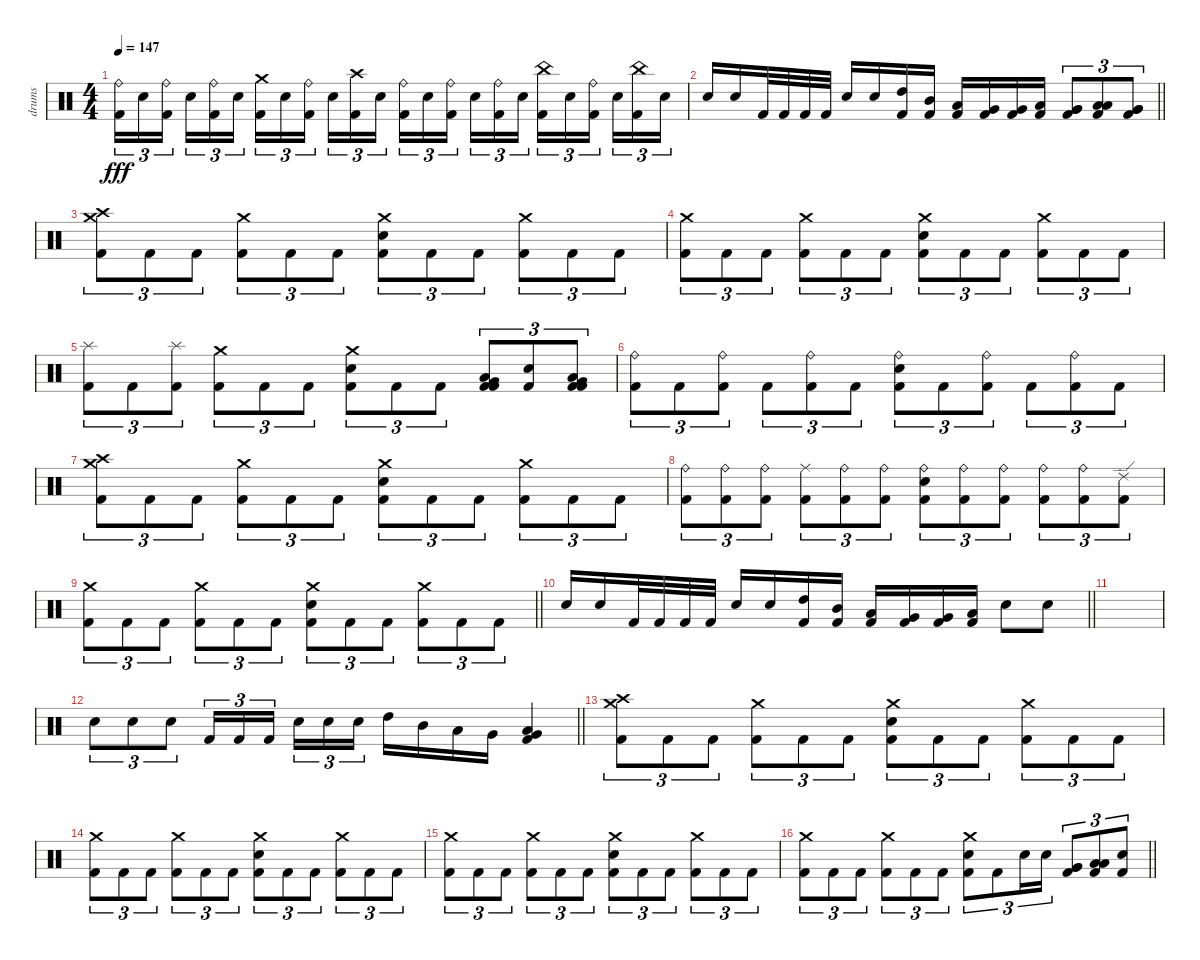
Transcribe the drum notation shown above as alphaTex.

\track ("drums" "drums") {instrument percussion}
\staff {score}
\articulation defaults
\ts (4 4)
\tempo 147
\clef neutral
\ks c
("Ride (bell)" "Kick (hit) 2").16{tu (3 2) dy fff} "Electric Snare (hit)".16{tu (3 2)} ("Ride (bell)" "Kick (hit) 2").16{tu (3 2) beam splitsecondary} "Electric Snare (hit)".16{tu (3 2)} ("Ride (bell)" "Kick (hit) 2").16{tu (3 2)} "Electric Snare (hit)".16{tu (3 2)} ("Crash medium (hit)" "Kick (hit) 2").16{tu (3 2)} "Electric Snare (hit)".16{tu (3 2)} ("Ride (bell)" "Kick (hit) 2").16{tu (3 2) beam splitsecondary} "Electric Snare (hit)".16{tu (3 2)} ("Crash high (hit)" "Kick (hit) 2").16{tu (3 2)} "Electric Snare (hit)".16{tu (3 2)} ("Ride (bell)" "Kick (hit) 2").16{tu (3 2)} "Electric Snare (hit)".16{tu (3 2)} ("Ride (bell)" "Kick (hit) 2").16{tu (3 2) beam splitsecondary} "Electric Snare (hit)".16{tu (3 2)} ("Ride (bell)" "Kick (hit) 2").16{tu (3 2)} "Electric Snare (hit)".16{tu (3 2)} ("China (hit)" "Kick (hit) 2").16{tu (3 2)} "Electric Snare (hit)".16{tu (3 2)} ("Ride (bell)" "Kick (hit) 2").16{tu (3 2) beam splitsecondary} "Electric Snare (hit)".16{tu (3 2)} ("China (hit)" "Kick (hit) 2").16{tu (3 2)} "Electric Snare (hit)".16{tu (3 2)} |
\barLineRight lightlight "Electric Snare (hit)".16 "Electric Snare (hit)".16 "Kick (hit) 2".32 "Kick (hit) 2".32 "Kick (hit) 2".32 "Kick (hit) 2".32 "Electric Snare (hit)".16 "Electric Snare (hit)".16
("High Tom (hit)" "Kick (hit) 2").16 ("Mid Tom (hit)" "Kick (hit) 2").16 ("Low Tom (hit)" "Kick (hit) 2").16 ("Very Low Tom (hit)" "Kick (hit) 2").16 ("Very Low Tom (hit)" "Kick (hit) 2").16 ("Low Floor Tom (hit)" "Kick (hit) 2").16 ("Very Low Tom (hit)" "Very Low Tom (hit)" "Kick (hit) 2").8{tu (3 2)} ("Low Floor Tom (hit)" "Low Floor Tom (hit)" "Kick (hit) 2").8{tu (3 2)} ("Very Low Tom (hit)" "Very Low Tom (hit)" "Kick (hit) 2").8{tu (3 2)} |
\section ("" "")
("Crash high (hit)" "Crash medium (hit)" "Kick (hit) 2").8{tu (3 2)} "Kick (hit) 2".8{tu (3 2)} "Kick (hit) 2".8{tu (3 2)} ("Crash medium (hit)" "Kick (hit) 2").8{tu (3 2)} "Kick (hit) 2".8{tu (3 2)} "Kick (hit) 2".8{tu (3 2)} ("Crash medium (hit)" "Electric Snare (hit)" "Kick (hit) 2").8{tu (3 2)} "Kick (hit) 2".8{tu (3 2)} "Kick (hit) 2".8{tu (3 2)} ("Crash medium (hit)" "Kick (hit) 2").8{tu (3 2)} "Kick (hit) 2".8{tu (3 2)} "Kick (hit) 2".8{tu (3 2)} |
("Crash medium (hit)" "Kick (hit) 2").8{tu (3 2)} "Kick (hit) 2".8{tu (3 2)} "Kick (hit) 2".8{tu (3 2)} ("Crash medium (hit)" "Kick (hit) 2").8{tu (3 2)} "Kick (hit) 2".8{tu (3 2)} "Kick (hit) 2".8{tu (3 2)} ("Crash medium (hit)" "Electric Snare (hit)" "Kick (hit) 2").8{tu (3 2)} "Kick (hit) 2".8{tu (3 2)} "Kick (hit) 2".8{tu (3 2)} ("Crash medium (hit)" "Kick (hit) 2").8{tu (3 2)} "Kick (hit) 2".8{tu (3 2)} "Kick (hit) 2".8{tu (3 2)} |
("Splash (hit)" "Kick (hit) 2").8{tu (3 2)} "Kick (hit) 2".8{tu (3 2)} ("Splash (hit)" "Kick (hit) 2").8{tu (3 2)} ("Crash medium (hit)" "Kick (hit) 2").8{tu (3 2)} "Kick (hit) 2".8{tu (3 2)} "Kick (hit) 2".8{tu (3 2)} ("Crash medium (hit)" "Electric Snare (hit)" "Kick (hit) 2").8{tu (3 2)} "Kick (hit) 2".8{tu (3 2)} "Kick (hit) 2".8{tu (3 2)} ("Very Low Tom (hit)" "Low Floor Tom (hit)" "Kick (hit) 2" "Kick (hit) 2").8{tu (3 2)} ("Electric Snare (hit)" "Kick (hit) 2").8{tu (3 2)} ("Very Low Tom (hit)" "Low Floor Tom (hit)" "Kick (hit) 2" "Kick (hit) 2").8{tu (3 2)} |
("Ride (bell)" "Kick (hit) 2").8{tu (3 2)} "Kick (hit) 2".8{tu (3 2)} ("Ride (bell)" "Kick (hit) 2").8{tu (3 2)} "Kick (hit) 2".8{tu (3 2)} ("Ride (bell)" "Kick (hit) 2").8{tu (3 2)} "Kick (hit) 2".8{tu (3 2)} ("Ride (bell)" "Electric Snare (hit)" "Kick (hit) 2").8{tu (3 2)} "Kick (hit) 2".8{tu (3 2)} ("Ride (bell)" "Kick (hit) 2").8{tu (3 2)} "Kick (hit) 2".8{tu (3 2)} ("Ride (bell)" "Kick (hit) 2").8{tu (3 2)} "Kick (hit) 2".8{tu (3 2)} |
("Crash high (hit)" "Crash medium (hit)" "Kick (hit) 2").8{tu (3 2)} "Kick (hit) 2".8{tu (3 2)} "Kick (hit) 2".8{tu (3 2)} ("Crash medium (hit)" "Kick (hit) 2").8{tu (3 2)} "Kick (hit) 2".8{tu (3 2)} "Kick (hit) 2".8{tu (3 2)} ("Crash medium (hit)" "Electric Snare (hit)" "Kick (hit) 2").8{tu (3 2)} "Kick (hit) 2".8{tu (3 2)} "Kick (hit) 2".8{tu (3 2)} ("Crash medium (hit)" "Kick (hit) 2").8{tu (3 2)} "Kick (hit) 2".8{tu (3 2)} "Kick (hit) 2".8{tu (3 2)} |
("Ride (bell)" "Kick (hit) 2").8{tu (3 2)} ("Ride (bell)" "Kick (hit) 2").8{tu (3 2)} ("Ride (bell)" "Kick (hit) 2").8{tu (3 2)} ("Ride (middle)" "Kick (hit) 2").8{tu (3 2)} ("Ride (bell)" "Kick (hit) 2").8{tu (3 2)} ("Ride (bell)" "Kick (hit) 2").8{tu (3 2)} ("Ride (bell)" "Electric Snare (hit)" "Kick (hit) 2").8{tu (3 2)} ("Ride (bell)" "Kick (hit) 2").8{tu (3 2)} ("Ride (bell)" "Kick (hit) 2").8{tu (3 2)} ("Ride (bell)" "Kick (hit) 2").8{tu (3 2)} ("Ride (bell)" "Kick (hit) 2").8{tu (3 2)} ("Ride (edge) 2" "Kick (hit) 2").8{tu (3 2)} |
\barLineRight lightlight
("Crash medium (hit)" "Kick (hit) 2").8{tu (3 2)} "Kick (hit) 2".8{tu (3 2)} "Kick (hit) 2".8{tu (3 2)} ("Crash medium (hit)" "Kick (hit) 2").8{tu (3 2)} "Kick (hit) 2".8{tu (3 2)} "Kick (hit) 2".8{tu (3 2)} ("Crash medium (hit)" "Electric Snare (hit)" "Kick (hit) 2").8{tu (3 2)} "Kick (hit) 2".8{tu (3 2)} "Kick (hit) 2".8{tu (3 2)} ("Crash medium (hit)" "Kick (hit) 2").8{tu (3 2)} "Kick (hit) 2".8{tu (3 2)} "Kick (hit) 2".8{tu (3 2)} |
\barLineRight lightlight "Electric Snare (hit)".16 "Electric Snare (hit)".16 "Kick (hit) 2".32 "Kick (hit) 2".32 "Kick (hit) 2".32 "Kick (hit) 2".32 "Electric Snare (hit)".16 "Electric Snare (hit)".16
("High Tom (hit)" "Kick (hit) 2").16 ("Mid Tom (hit)" "Kick (hit) 2").16 ("Low Tom (hit)" "Kick (hit) 2").16 ("Very Low Tom (hit)" "Kick (hit) 2").16 ("Very Low Tom (hit)" "Kick (hit) 2").16 ("Low Floor Tom (hit)" "Kick (hit) 2").16 "Electric Snare (hit)".8 "Electric Snare (hit)".8 |
\section ("" "")
|
\barLineRight lightlight "Electric Snare (hit)".8{tu (3 2)} "Electric Snare (hit)".8{tu (3 2)} "Electric Snare (hit)".8{tu (3 2)} "Kick (hit) 2".16{tu (3 2)} "Kick (hit) 2".16{tu (3 2)} "Kick (hit) 2".16{tu (3 2) beam splitsecondary} "Electric Snare (hit)".16{tu (3 2)} "Electric Snare (hit)".16{tu (3 2)} "Electric Snare (hit)".16{tu (3 2)} "High Tom (hit)".16 "Mid Tom (hit)".16 "Low Tom (hit)".16 "Very Low Tom (hit)".16
("Very Low Tom (hit)" "Low Floor Tom (hit)" "Kick (hit) 2").4 |
\section ("" "")
("Crash medium (hit)" "Crash high (hit)" "Kick (hit) 2").8{tu (3 2)} "Kick (hit) 2".8{tu (3 2)} "Kick (hit) 2".8{tu (3 2)} ("Crash medium (hit)" "Kick (hit) 2").8{tu (3 2)} "Kick (hit) 2".8{tu (3 2)} "Kick (hit) 2".8{tu (3 2)} ("Crash medium (hit)" "Electric Snare (hit)" "Kick (hit) 2").8{tu (3 2)} "Kick (hit) 2".8{tu (3 2)} "Kick (hit) 2".8{tu (3 2)} ("Crash medium (hit)" "Kick (hit) 2").8{tu (3 2)} "Kick (hit) 2".8{tu (3 2)} "Kick (hit) 2".8{tu (3 2)} |
("Crash medium (hit)" "Kick (hit) 2").8{tu (3 2)} "Kick (hit) 2".8{tu (3 2)} "Kick (hit) 2".8{tu (3 2)} ("Crash medium (hit)" "Kick (hit) 2").8{tu (3 2)} "Kick (hit) 2".8{tu (3 2)} "Kick (hit) 2".8{tu (3 2)} ("Crash medium (hit)" "Electric Snare (hit)" "Kick (hit) 2").8{tu (3 2)} "Kick (hit) 2".8{tu (3 2)} "Kick (hit) 2".8{tu (3 2)} ("Crash medium (hit)" "Kick (hit) 2").8{tu (3 2)} "Kick (hit) 2".8{tu (3 2)} "Kick (hit) 2".8{tu (3 2)} |
("Crash medium (hit)" "Kick (hit) 2").8{tu (3 2)} "Kick (hit) 2".8{tu (3 2)} "Kick (hit) 2".8{tu (3 2)} ("Crash medium (hit)" "Kick (hit) 2").8{tu (3 2)} "Kick (hit) 2".8{tu (3 2)} "Kick (hit) 2".8{tu (3 2)} ("Crash medium (hit)" "Electric Snare (hit)" "Kick (hit) 2").8{tu (3 2)} "Kick (hit) 2".8{tu (3 2)} "Kick (hit) 2".8{tu (3 2)} ("Crash medium (hit)" "Kick (hit) 2").8{tu (3 2)} "Kick (hit) 2".8{tu (3 2)} "Kick (hit) 2".8{tu (3 2)} |
\barLineRight lightlight
("Crash medium (hit)" "Kick (hit) 2").8{tu (3 2)} "Kick (hit) 2".8{tu (3 2)} "Kick (hit) 2".8{tu (3 2)} ("Crash medium (hit)" "Kick (hit) 2").8{tu (3 2)} "Kick (hit) 2".8{tu (3 2)} "Kick (hit) 2".8{tu (3 2)} ("Crash medium (hit)" "Electric Snare (hit)" "Kick (hit) 2").8{tu (3 2)} "Kick (hit) 2".8{tu (3 2)} "Electric Snare (hit)".16{tu (3 2)} "Electric Snare (hit)".16{tu (3 2)} ("Very Low Tom (hit)" "Very Low Tom (hit)" "Kick (hit) 2").8{tu (3 2)} ("Low Floor Tom (hit)" "Low Floor Tom (hit)" "Kick (hit) 2").8{tu (3 2)} ("Electric Snare (hit)" "Kick (hit) 2").8{tu (3 2)}
